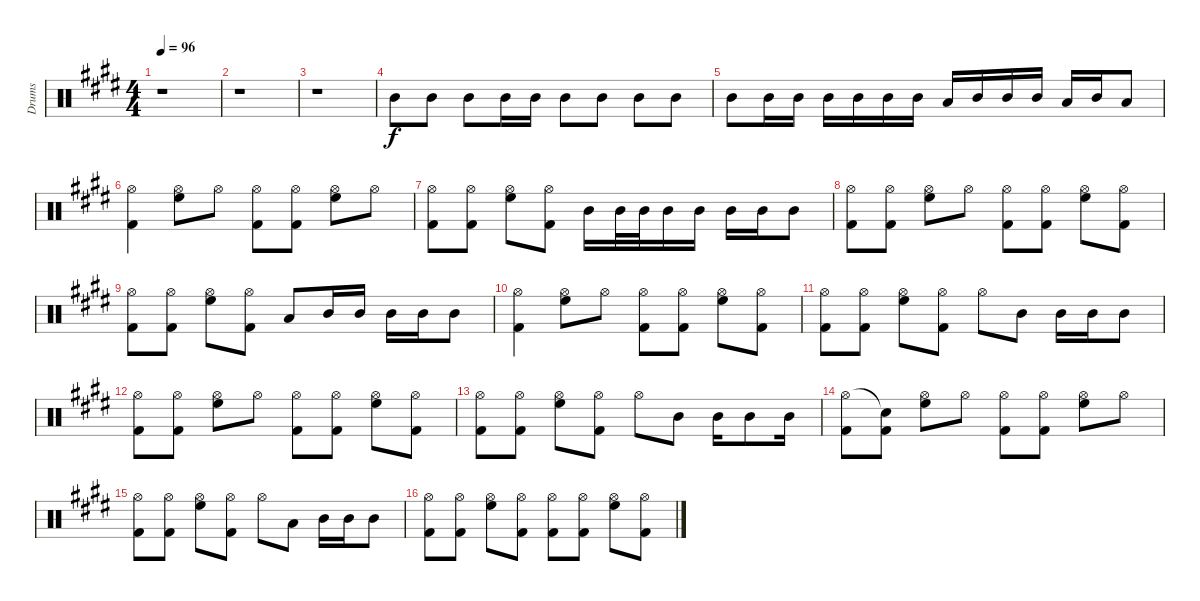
\track ("Drums" "Drums") {instrument percussion}
\staff {score}
\articulation defaults
\ts (4 4)
\tempo 96
\clef neutral
\ks e
r.1{dy f} |
r.1 |
r.1 |
"Mid Tom (hit)".8 "Mid Tom (hit)".8 "Mid Tom (hit)".8 "Mid Tom (hit)".16 "Mid Tom (hit)".16 "Mid Tom (hit)".8 "Mid Tom (hit)".8 "Mid Tom (hit)".8 "Mid Tom (hit)".8 |
"Mid Tom (hit)".8 "Mid Tom (hit)".16 "Mid Tom (hit)".16 "Mid Tom (hit)".16 "Mid Tom (hit)".16 "Mid Tom (hit)".16 "Mid Tom (hit)".16 "Low Tom (hit)".16 "Mid Tom (hit)".16 "Mid Tom (hit)".16 "Mid Tom (hit)".16 "Low Tom (hit)".16 "Mid Tom (hit)".16 "Low Tom (hit)".8 |
("Hi-Hat (open)" "Kick (hit) 2").4 ("Hi-Hat (open)" "High Floor Tom (hit)").8 "Hi-Hat (open)".8 ("Hi-Hat (open)" "Kick (hit) 2").8 ("Hi-Hat (open)" "Kick (hit) 2").8 ("Hi-Hat (open)" "High Floor Tom (hit)").8 "Hi-Hat (open)".8 |
("Hi-Hat (open)" "Kick (hit) 2").8 ("Hi-Hat (open)" "Kick (hit) 2").8 ("Hi-Hat (open)" "High Floor Tom (hit)").8 ("Hi-Hat (open)" "Kick (hit) 2").8 "Mid Tom (hit)".16 "Mid Tom (hit)".32 "Mid Tom (hit)".32 "Mid Tom (hit)".16 "Mid Tom (hit)".16 "Mid Tom (hit)".16 "Mid Tom (hit)".16 "Mid Tom (hit)".8 |
("Hi-Hat (open)" "Kick (hit) 2").8 ("Hi-Hat (open)" "Kick (hit) 2").8 ("Hi-Hat (open)" "High Floor Tom (hit)").8 "Hi-Hat (open)".8 ("Hi-Hat (open)" "Kick (hit) 2").8 ("Hi-Hat (open)" "Kick (hit) 2").8 ("Hi-Hat (open)" "High Floor Tom (hit)").8 ("Hi-Hat (open)" "Kick (hit) 2").8 |
("Hi-Hat (open)" "Kick (hit) 2").8 ("Hi-Hat (open)" "Kick (hit) 2").8 ("Hi-Hat (open)" "High Floor Tom (hit)").8 ("Hi-Hat (open)" "Kick (hit) 2").8 "Low Tom (hit)".8 "Mid Tom (hit)".16 "Mid Tom (hit)".16 "Mid Tom (hit)".16 "Mid Tom (hit)".16 "Mid Tom (hit)".8 |
("Hi-Hat (open)" "Kick (hit) 2").4 ("Hi-Hat (open)" "High Floor Tom (hit)").8 "Hi-Hat (open)".8 ("Hi-Hat (open)" "Kick (hit) 2").8 ("Hi-Hat (open)" "Kick (hit) 2").8 ("Hi-Hat (open)" "High Floor Tom (hit)").8 ("Hi-Hat (open)" "Kick (hit) 2").8 |
("Hi-Hat (open)" "Kick (hit) 2").8 ("Hi-Hat (open)" "Kick (hit) 2").8 ("Hi-Hat (open)" "High Floor Tom (hit)").8 ("Hi-Hat (open)" "Kick (hit) 2").8 "Hi-Hat (open)".8 "Mid Tom (hit)".8 "Mid Tom (hit)".16 "Mid Tom (hit)".16 "Mid Tom (hit)".8 |
("Hi-Hat (open)" "Kick (hit) 2").8 ("Hi-Hat (open)" "Kick (hit) 2").8 ("Hi-Hat (open)" "High Floor Tom (hit)").8 "Hi-Hat (open)".8 ("Hi-Hat (open)" "Kick (hit) 2").8 ("Hi-Hat (open)" "Kick (hit) 2").8 ("Hi-Hat (open)" "High Floor Tom (hit)").8 ("Hi-Hat (open)" "Kick (hit) 2").8 |
("Hi-Hat (open)" "Kick (hit) 2").8 ("Hi-Hat (open)" "Kick (hit) 2").8 ("Hi-Hat (open)" "High Floor Tom (hit)").8 ("Hi-Hat (open)" "Kick (hit) 2").8 "Hi-Hat (open)".8 "Mid Tom (hit)".8 "Mid Tom (hit)".16 "Mid Tom (hit)".8 "Mid Tom (hit)".16 |
("Hi-Hat (open)" "Kick (hit) 2").8 ("Snare (hit)"{t} "Kick (hit) 2").8 ("Hi-Hat (open)" "High Floor Tom (hit)").8 "Hi-Hat (open)".8 ("Hi-Hat (open)" "Kick (hit) 2").8 ("Hi-Hat (open)" "Kick (hit) 2").8 ("Hi-Hat (open)" "High Floor Tom (hit)").8 "Hi-Hat (open)".8 |
("Hi-Hat (open)" "Kick (hit) 2").8 ("Hi-Hat (open)" "Kick (hit) 2").8 ("Hi-Hat (open)" "High Floor Tom (hit)").8 ("Hi-Hat (open)" "Kick (hit) 2").8 "Hi-Hat (open)".8 "Low Tom (hit)".8 "Mid Tom (hit)".16 "Mid Tom (hit)".16 "Mid Tom (hit)".8 |
("Hi-Hat (open)" "Kick (hit) 2").8 ("Hi-Hat (open)" "Kick (hit) 2").8 ("Hi-Hat (open)" "High Floor Tom (hit)").8 ("Hi-Hat (open)" "Kick (hit) 2").8 ("Hi-Hat (open)" "Kick (hit) 2").8 ("Hi-Hat (open)" "Kick (hit) 2").8 ("Hi-Hat (open)" "High Floor Tom (hit)").8 ("Hi-Hat (open)" "Kick (hit) 2").8
